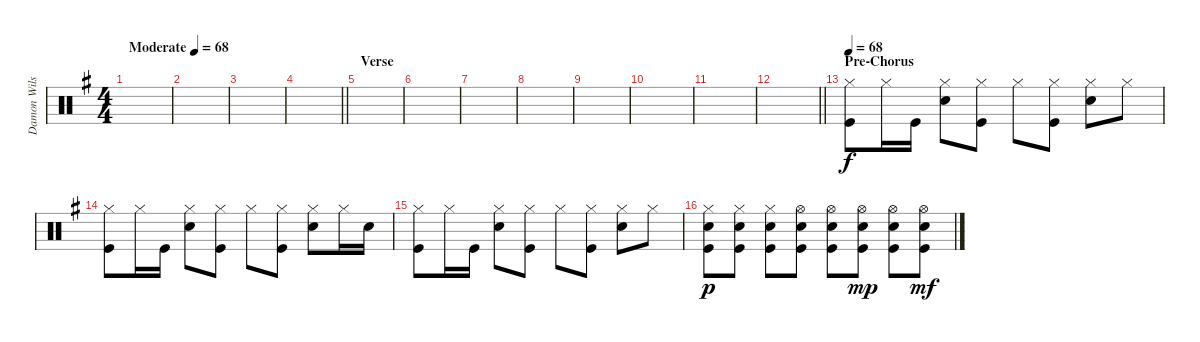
\track ("Damon Wilson" "Damon Wils") {instrument percussion}
\staff {score}
\articulation defaults
\ts (4 4)
\tempo (68 "Moderate")
\tempo 64
\tempo (68 "Moderate")
\clef neutral
\ks g
|
|
|
\barLineRight lightlight
|
\section ("" "Verse")
|
|
|
|
|
|
|
\barLineRight lightlight
|
\section ("" "Pre-Chorus")
\tempo 68
("Hi-Hat (closed)" "Kick (hit)").8 "Hi-Hat (closed)".16 "Kick (hit)".16 ("Hi-Hat (closed)" "Electric Snare (hit)").8 ("Hi-Hat (closed)" "Kick (hit)").8 "Hi-Hat (closed)".8 ("Hi-Hat (closed)" "Kick (hit)").8 ("Hi-Hat (closed)" "Electric Snare (hit)").8 "Hi-Hat (closed)".8 |
("Hi-Hat (closed)" "Kick (hit)").8 "Hi-Hat (closed)".16 "Kick (hit)".16 ("Hi-Hat (closed)" "Electric Snare (hit)").8 ("Hi-Hat (closed)" "Kick (hit)").8 "Hi-Hat (closed)".8 ("Hi-Hat (closed)" "Kick (hit)").8 ("Hi-Hat (closed)" "Electric Snare (hit)").8 "Hi-Hat (closed)".16 "Electric Snare (hit)".16 |
("Hi-Hat (closed)" "Kick (hit)").8 "Hi-Hat (closed)".16 "Kick (hit)".16 ("Hi-Hat (closed)" "Electric Snare (hit)").8 ("Hi-Hat (closed)" "Kick (hit)").8 "Hi-Hat (closed)".8 ("Hi-Hat (closed)" "Kick (hit)").8 ("Hi-Hat (closed)" "Electric Snare (hit)").8 "Hi-Hat (closed)".8 |
("Hi-Hat (closed)" "Electric Snare (hit)" "Kick (hit)").8{dy p} ("Hi-Hat (closed)" "Electric Snare (hit)" "Kick (hit)").8 ("Hi-Hat (closed)" "Electric Snare (hit)" "Kick (hit)").8 ("Hi-Hat (open)" "Electric Snare (hit)" "Kick (hit)").8 ("Hi-Hat (open)" "Electric Snare (hit)" "Kick (hit)").8 ("Hi-Hat (open)" "Electric Snare (hit)" "Kick (hit)").8{dy mp} ("Hi-Hat (open)" "Electric Snare (hit)" "Kick (hit)").8 ("Hi-Hat (open)" "Electric Snare (hit)" "Kick (hit)").8{dy mf}
